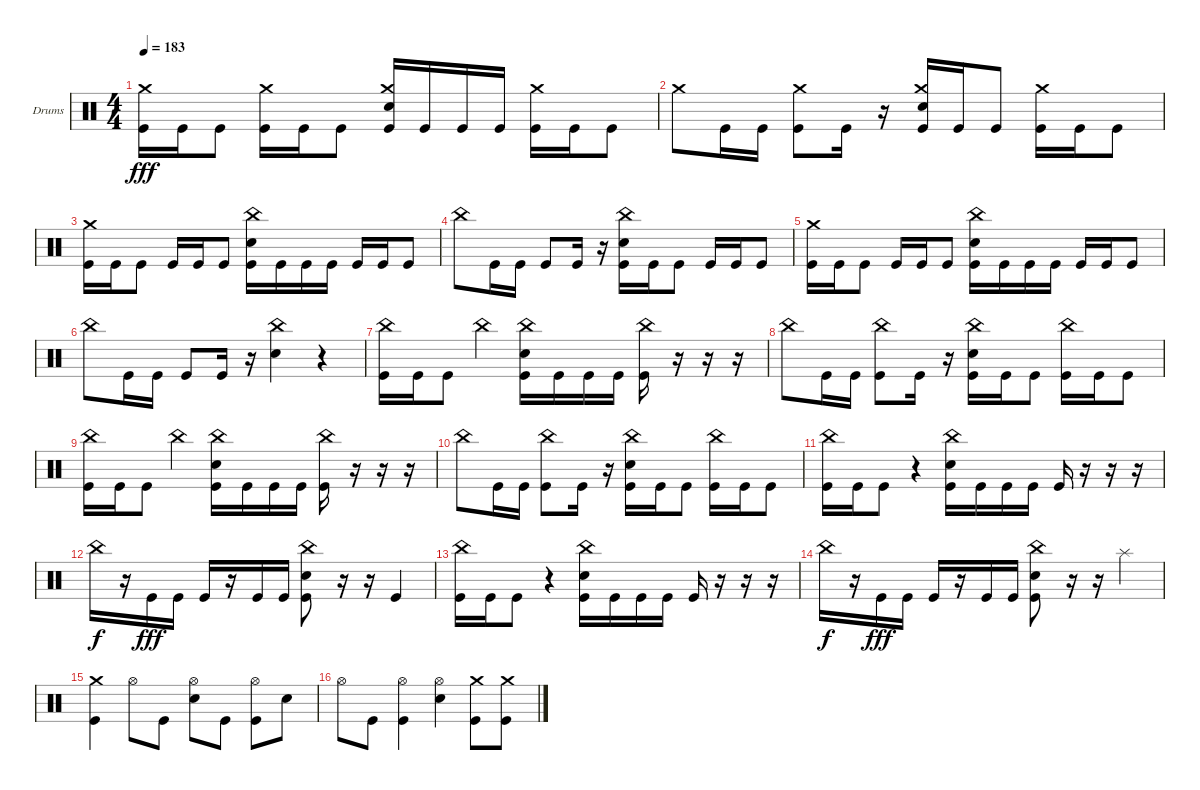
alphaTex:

\bracketExtendMode groupsimilarinstruments
\firstSystemTrackNameOrientation horizontal
\otherSystemsTrackNameOrientation horizontal
\track ("Drumkit" "Drums") {instrument percussion}
\staff {score}
\articulation defaults
\ts (4 4)
\tempo 183
\clef neutral
\scale
0.333333
\ks c
("Kick (hit)" "Crash medium (hit)").16{dy fff} "Kick (hit)".16 "Kick (hit)".8 ("Kick (hit)" "Crash medium (hit)").16 "Kick (hit)".16 "Kick (hit)".8 ("Snare (hit) 2" "Crash medium (hit)" "Kick (hit)").16 "Kick (hit)".16 "Kick (hit)".16 "Kick (hit)".16 ("Kick (hit)" "Crash medium (hit)").16 "Kick (hit)".16 "Kick (hit)".8 |
\scale
0.333333 "Crash medium (hit)".8 "Kick (hit)".16 "Kick (hit)".16 ("Kick (hit)" "Crash medium (hit)").8 "Kick (hit)".16 r.16 ("Kick (hit)" "Snare (hit) 2" "Crash medium (hit)").16 "Kick (hit)".16 "Kick (hit)".8 ("Crash medium (hit)" "Kick (hit)").16 "Kick (hit)".16 "Kick (hit)".8 |
\scale
0.333333 ("Kick (hit)" "Crash medium (hit)").16 "Kick (hit)".16 "Kick (hit)".8 "Kick (hit)".16 "Kick (hit)".16 "Kick (hit)".8 ("Snare (hit) 2" "Kick (hit)" "China (hit)").16 "Kick (hit)".16 "Kick (hit)".16 "Kick (hit)".16 "Kick (hit)".16 "Kick (hit)".16 "Kick (hit)".8 |
\scale
0.333333 "China (hit)".8 "Kick (hit)".16 "Kick (hit)".16 "Kick (hit)".8 "Kick (hit)".16 r.16 ("Kick (hit)" "Snare (hit) 2" "China (hit)").16 "Kick (hit)".16 "Kick (hit)".8 "Kick (hit)".16 "Kick (hit)".16 "Kick (hit)".8 |
\scale
0.333333 ("Kick (hit)" "Crash medium (hit)").16 "Kick (hit)".16 "Kick (hit)".8 "Kick (hit)".16 "Kick (hit)".16 "Kick (hit)".8 ("Snare (hit) 2" "Kick (hit)" "China (hit)").16 "Kick (hit)".16 "Kick (hit)".16 "Kick (hit)".16 "Kick (hit)".16 "Kick (hit)".16 "Kick (hit)".8 |
\scale
0.333333 "China (hit)".8 "Kick (hit)".16 "Kick (hit)".16 "Kick (hit)".8 "Kick (hit)".16 r.16 ("Snare (hit) 2" "China (hit)").4 r.4 |
\scale
0.333333 ("Kick (hit)" "China (hit)").16 "Kick (hit)".16 "Kick (hit)".8 "China (hit)".4 ("Snare (hit) 2" "China (hit)" "Kick (hit)").16 "Kick (hit)".16 "Kick (hit)".16 "Kick (hit)".16 ("Kick (hit)" "China (hit)").16 r.16 r.16 r.16 |
\scale
0.333333 "China (hit)".8 "Kick (hit)".16 "Kick (hit)".16 ("Kick (hit)" "China (hit)").8 "Kick (hit)".16 r.16 ("Kick (hit)" "Snare (hit) 2" "China (hit)").16 "Kick (hit)".16 "Kick (hit)".8 ("Kick (hit)" "China (hit)").16 "Kick (hit)".16 "Kick (hit)".8 |
\scale
0.333333 ("Kick (hit)" "China (hit)").16 "Kick (hit)".16 "Kick (hit)".8 "China (hit)".4 ("Snare (hit) 2" "China (hit)" "Kick (hit)").16 "Kick (hit)".16 "Kick (hit)".16 "Kick (hit)".16 ("Kick (hit)" "China (hit)").16 r.16 r.16 r.16 |
\scale
0.333333 "China (hit)".8 "Kick (hit)".16 "Kick (hit)".16 ("Kick (hit)" "China (hit)").8 "Kick (hit)".16 r.16 ("Kick (hit)" "Snare (hit) 2" "China (hit)").16 "Kick (hit)".16 "Kick (hit)".8 ("Kick (hit)" "China (hit)").16 "Kick (hit)".16 "Kick (hit)".8 |
\scale
0.333333 ("Kick (hit)" "China (hit)").16 "Kick (hit)".16 "Kick (hit)".8 r.4 ("Snare (hit) 2" "China (hit)" "Kick (hit)").16 "Kick (hit)".16 "Kick (hit)".16 "Kick (hit)".16 "Kick (hit)".16 r.16 r.16 r.16 |
\scale
0.333333 "China (hit)".16{dy f} r.16 "Kick (hit)".16{dy fff} "Kick (hit)".16 "Kick (hit)".16 r.16 "Kick (hit)".16 "Kick (hit)".16 ("Kick (hit)" "China (hit)" "Snare (hit) 2").8 r.16 r.16 "Kick (hit)".4 |
\scale
0.333333 ("Kick (hit)" "China (hit)").16 "Kick (hit)".16 "Kick (hit)".8 r.4 ("Snare (hit) 2" "China (hit)" "Kick (hit)").16 "Kick (hit)".16 "Kick (hit)".16 "Kick (hit)".16 "Kick (hit)".16 r.16 r.16 r.16 |
\scale
0.333333 "China (hit)".16{dy f} r.16 "Kick (hit)".16{dy fff} "Kick (hit)".16 "Kick (hit)".16 r.16 "Kick (hit)".16 "Kick (hit)".16 ("Kick (hit)" "China (hit)" "Snare (hit) 2").8 r.16 r.16 "Splash (hit)".4 |
\scale
0.333333 ("Kick (hit)" "Crash medium (hit)").4 "Hi-Hat (open)".8 "Kick (hit)".8 ("Snare (hit) 2" "Hi-Hat (open)").8 "Kick (hit)".8 ("Kick (hit)" "Hi-Hat (open)").8 "Snare (hit) 2".8 |
\scale
0.333333 "Hi-Hat (open)".8 "Kick (hit)".8 ("Kick (hit)" "Hi-Hat (open)").4 ("Snare (hit) 2" "Hi-Hat (open)").4 ("Kick (hit)" "Crash medium (hit)").8 ("Kick (hit)" "Crash medium (hit)").8
